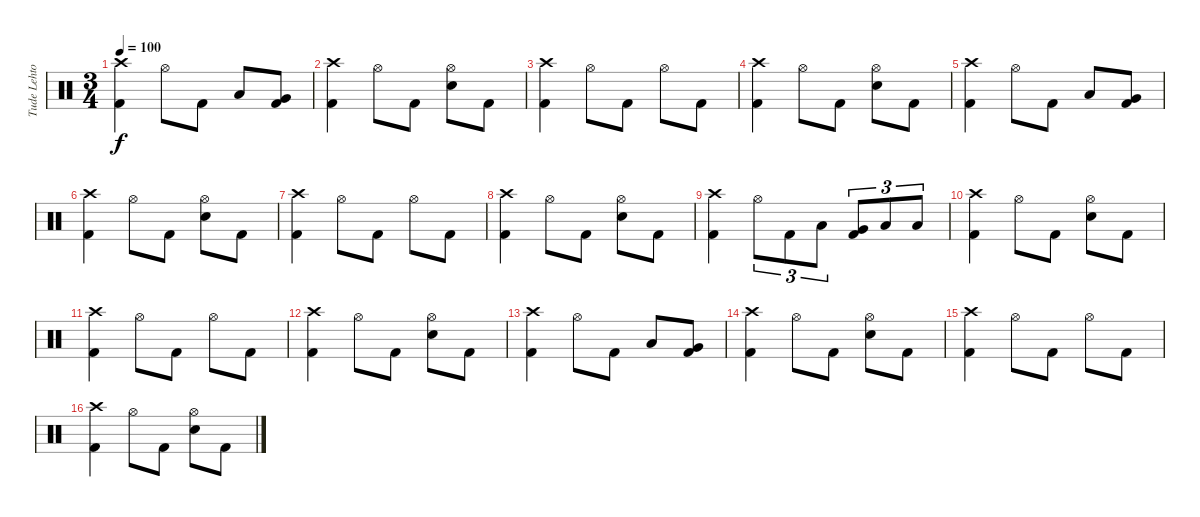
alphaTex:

\track ("Tude Lehtonen" "Tude Lehto") {instrument percussion}
\staff {score}
\articulation defaults
\ts (3 4)
\tempo 100
\clef neutral
\ks c
("Crash high (hit)" "Kick (hit) 2").4{dy f} "Hi-Hat (open)".8 "Kick (hit) 2".8 "Low Tom (hit)".8 ("Very Low Tom (hit)" "Kick (hit) 2").8 |
("Crash high (hit)" "Kick (hit) 2").4 "Hi-Hat (open)".8 "Kick (hit) 2".8 ("Hi-Hat (open)" "Electric Snare (hit)").8 "Kick (hit) 2".8 |
("Crash high (hit)" "Kick (hit) 2").4 "Hi-Hat (open)".8 "Kick (hit) 2".8 "Hi-Hat (open)".8 "Kick (hit) 2".8 |
("Crash high (hit)" "Kick (hit) 2").4 "Hi-Hat (open)".8 "Kick (hit) 2".8 ("Hi-Hat (open)" "Electric Snare (hit)").8 "Kick (hit) 2".8 |
("Crash high (hit)" "Kick (hit) 2").4 "Hi-Hat (open)".8 "Kick (hit) 2".8 "Low Tom (hit)".8 ("Very Low Tom (hit)" "Kick (hit) 2").8 |
("Crash high (hit)" "Kick (hit) 2").4 "Hi-Hat (open)".8 "Kick (hit) 2".8 ("Hi-Hat (open)" "Electric Snare (hit)").8 "Kick (hit) 2".8 |
("Crash high (hit)" "Kick (hit) 2").4 "Hi-Hat (open)".8 "Kick (hit) 2".8 "Hi-Hat (open)".8 "Kick (hit) 2".8 |
("Crash high (hit)" "Kick (hit) 2").4 "Hi-Hat (open)".8 "Kick (hit) 2".8 ("Hi-Hat (open)" "Electric Snare (hit)").8 "Kick (hit) 2".8 |
("Crash high (hit)" "Kick (hit) 2").4 "Hi-Hat (open)".8{tu (3 2)} "Kick (hit) 2".8{tu (3 2)} "Low Tom (hit)".8{tu (3 2)} ("Very Low Tom (hit)" "Kick (hit) 2").8{tu (3 2)} "Low Floor Tom (hit)".8{tu (3 2)} "Low Floor Tom (hit)".8{tu (3 2)} |
("Crash high (hit)" "Kick (hit) 2").4 "Hi-Hat (open)".8 "Kick (hit) 2".8 ("Hi-Hat (open)" "Electric Snare (hit)").8 "Kick (hit) 2".8 |
("Crash high (hit)" "Kick (hit) 2").4 "Hi-Hat (open)".8 "Kick (hit) 2".8 "Hi-Hat (open)".8 "Kick (hit) 2".8 |
("Crash high (hit)" "Kick (hit) 2").4 "Hi-Hat (open)".8 "Kick (hit) 2".8 ("Hi-Hat (open)" "Electric Snare (hit)").8 "Kick (hit) 2".8 |
("Crash high (hit)" "Kick (hit) 2").4 "Hi-Hat (open)".8 "Kick (hit) 2".8 "Low Tom (hit)".8 ("Very Low Tom (hit)" "Kick (hit) 2").8 |
("Crash high (hit)" "Kick (hit) 2").4 "Hi-Hat (open)".8 "Kick (hit) 2".8 ("Hi-Hat (open)" "Electric Snare (hit)").8 "Kick (hit) 2".8 |
("Crash high (hit)" "Kick (hit) 2").4 "Hi-Hat (open)".8 "Kick (hit) 2".8 "Hi-Hat (open)".8 "Kick (hit) 2".8 |
("Crash high (hit)" "Kick (hit) 2").4 "Hi-Hat (open)".8 "Kick (hit) 2".8 ("Hi-Hat (open)" "Electric Snare (hit)").8 "Kick (hit) 2".8
